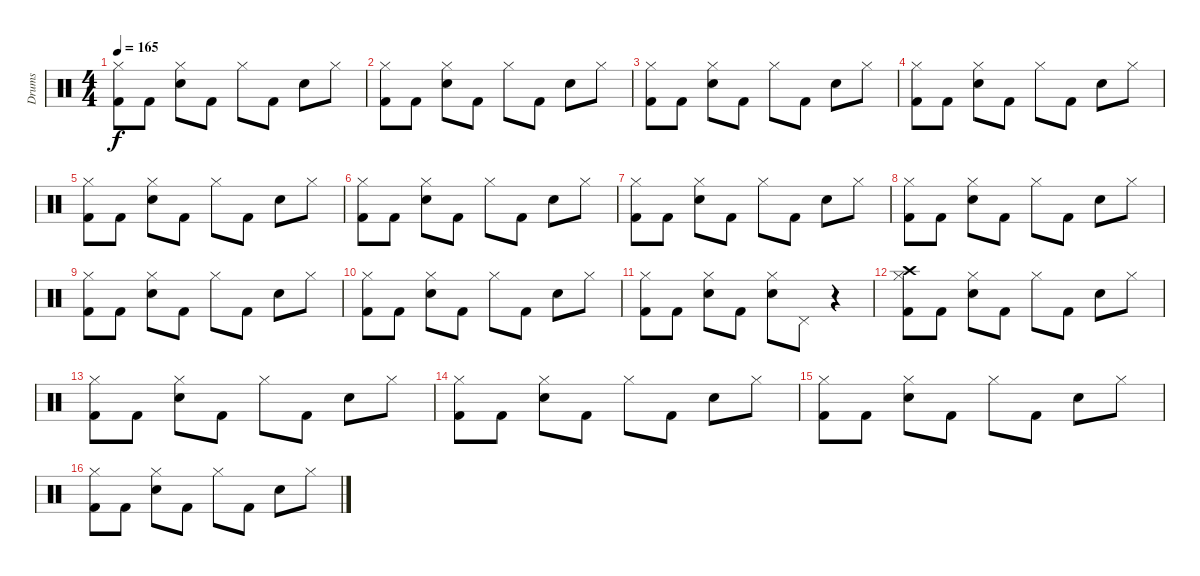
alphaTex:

\track ("Drums" "Drums") {instrument percussion}
\staff {score}
\articulation defaults
\ts (4 4)
\tempo 165
\clef neutral
\ks c
("Kick (hit) 2" "Hi-Hat (closed)").8{dy f} "Kick (hit) 2".8 ("Snare (hit) 2" "Hi-Hat (closed)").8 "Kick (hit) 2".8 "Hi-Hat (closed)".8 "Kick (hit) 2".8 "Snare (hit) 2".8 "Hi-Hat (closed)".8 |
("Kick (hit) 2" "Hi-Hat (closed)").8 "Kick (hit) 2".8 ("Snare (hit) 2" "Hi-Hat (closed)").8 "Kick (hit) 2".8 "Hi-Hat (closed)".8 "Kick (hit) 2".8 "Snare (hit) 2".8 "Hi-Hat (closed)".8 |
("Kick (hit) 2" "Hi-Hat (closed)").8 "Kick (hit) 2".8 ("Snare (hit) 2" "Hi-Hat (closed)").8 "Kick (hit) 2".8 "Hi-Hat (closed)".8 "Kick (hit) 2".8 "Snare (hit) 2".8 "Hi-Hat (closed)".8 |
("Kick (hit) 2" "Hi-Hat (closed)").8 "Kick (hit) 2".8 ("Snare (hit) 2" "Hi-Hat (closed)").8 "Kick (hit) 2".8 "Hi-Hat (closed)".8 "Kick (hit) 2".8 "Snare (hit) 2".8 "Hi-Hat (closed)".8 |
("Kick (hit) 2" "Hi-Hat (closed)").8 "Kick (hit) 2".8 ("Snare (hit) 2" "Hi-Hat (closed)").8 "Kick (hit) 2".8 "Hi-Hat (closed)".8 "Kick (hit) 2".8 "Snare (hit) 2".8 "Hi-Hat (closed)".8 |
("Kick (hit) 2" "Hi-Hat (closed)").8 "Kick (hit) 2".8 ("Snare (hit) 2" "Hi-Hat (closed)").8 "Kick (hit) 2".8 "Hi-Hat (closed)".8 "Kick (hit) 2".8 "Snare (hit) 2".8 "Hi-Hat (closed)".8 |
("Kick (hit) 2" "Hi-Hat (closed)").8 "Kick (hit) 2".8 ("Snare (hit) 2" "Hi-Hat (closed)").8 "Kick (hit) 2".8 "Hi-Hat (closed)".8 "Kick (hit) 2".8 "Snare (hit) 2".8 "Hi-Hat (closed)".8 |
("Kick (hit) 2" "Hi-Hat (closed)").8 "Kick (hit) 2".8 ("Snare (hit) 2" "Hi-Hat (closed)").8 "Kick (hit) 2".8 "Hi-Hat (closed)".8 "Kick (hit) 2".8 "Snare (hit) 2".8 "Hi-Hat (closed)".8 |
("Kick (hit) 2" "Hi-Hat (closed)").8 "Kick (hit) 2".8 ("Snare (hit) 2" "Hi-Hat (closed)").8 "Kick (hit) 2".8 "Hi-Hat (closed)".8 "Kick (hit) 2".8 "Snare (hit) 2".8 "Hi-Hat (closed)".8 |
("Kick (hit) 2" "Hi-Hat (closed)").8 "Kick (hit) 2".8 ("Snare (hit) 2" "Hi-Hat (closed)").8 "Kick (hit) 2".8 "Hi-Hat (closed)".8 "Kick (hit) 2".8 "Snare (hit) 2".8 "Hi-Hat (closed)".8 |
("Kick (hit) 2" "Hi-Hat (closed)").8 "Kick (hit) 2".8 ("Snare (hit) 2" "Hi-Hat (closed)").8 "Kick (hit) 2".8 ("Snare (hit) 2" "Hi-Hat (closed)").8 "Pedal Hi-Hat (hit)".8 r.4 |
("Crash high (hit)" "Kick (hit) 2" "Hi-Hat (closed)").8 "Kick (hit) 2".8 ("Snare (hit) 2" "Hi-Hat (closed)").8 "Kick (hit) 2".8 "Hi-Hat (closed)".8 "Kick (hit) 2".8 "Snare (hit) 2".8 "Hi-Hat (closed)".8 |
("Kick (hit) 2" "Hi-Hat (closed)").8 "Kick (hit) 2".8 ("Snare (hit) 2" "Hi-Hat (closed)").8 "Kick (hit) 2".8 "Hi-Hat (closed)".8 "Kick (hit) 2".8 "Snare (hit) 2".8 "Hi-Hat (closed)".8 |
("Kick (hit) 2" "Hi-Hat (closed)").8 "Kick (hit) 2".8 ("Snare (hit) 2" "Hi-Hat (closed)").8 "Kick (hit) 2".8 "Hi-Hat (closed)".8 "Kick (hit) 2".8 "Snare (hit) 2".8 "Hi-Hat (closed)".8 |
("Kick (hit) 2" "Hi-Hat (closed)").8 "Kick (hit) 2".8 ("Snare (hit) 2" "Hi-Hat (closed)").8 "Kick (hit) 2".8 "Hi-Hat (closed)".8 "Kick (hit) 2".8 "Snare (hit) 2".8 "Hi-Hat (closed)".8 |
("Kick (hit) 2" "Hi-Hat (closed)").8 "Kick (hit) 2".8 ("Snare (hit) 2" "Hi-Hat (closed)").8 "Kick (hit) 2".8 "Hi-Hat (closed)".8 "Kick (hit) 2".8 "Snare (hit) 2".8 "Hi-Hat (closed)".8
